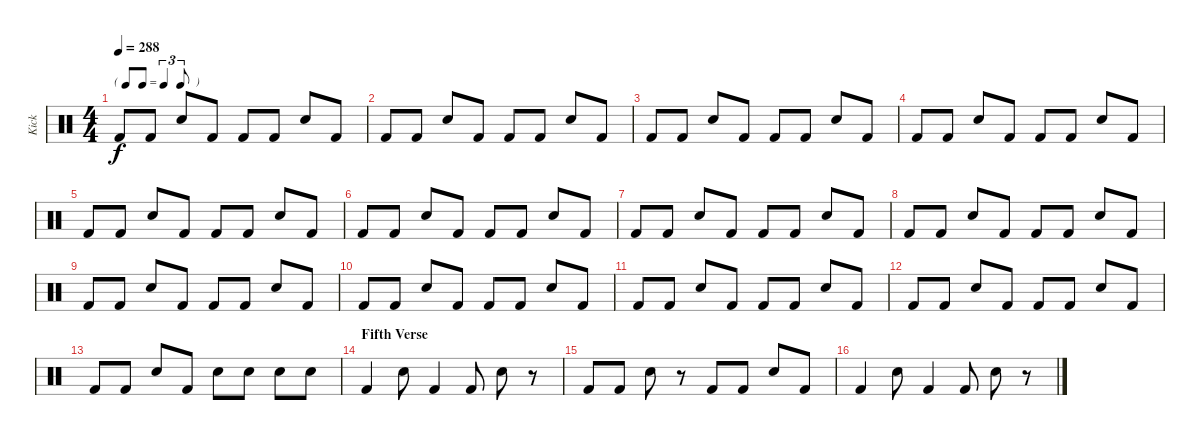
\track ("Kick" "Kick") {instrument percussion}
\staff {score}
\articulation defaults
\ts (4 4)
\tf triplet8th
\tempo 288
\clef neutral
\ks c "Kick (hit) 2".8{dy f} "Kick (hit) 2".8 "Snare (hit) 2".8 "Kick (hit) 2".8 "Kick (hit) 2".8 "Kick (hit) 2".8 "Snare (hit) 2".8 "Kick (hit) 2".8
|
"Kick (hit) 2".8 "Kick (hit) 2".8 "Snare (hit) 2".8 "Kick (hit) 2".8 "Kick (hit) 2".8 "Kick (hit) 2".8 "Snare (hit) 2".8 "Kick (hit) 2".8 |
"Kick (hit) 2".8 "Kick (hit) 2".8 "Snare (hit) 2".8 "Kick (hit) 2".8 "Kick (hit) 2".8 "Kick (hit) 2".8 "Snare (hit) 2".8 "Kick (hit) 2".8 |
"Kick (hit) 2".8 "Kick (hit) 2".8 "Snare (hit) 2".8 "Kick (hit) 2".8 "Kick (hit) 2".8 "Kick (hit) 2".8 "Snare (hit) 2".8 "Kick (hit) 2".8 |
"Kick (hit) 2".8 "Kick (hit) 2".8 "Snare (hit) 2".8 "Kick (hit) 2".8 "Kick (hit) 2".8 "Kick (hit) 2".8 "Snare (hit) 2".8 "Kick (hit) 2".8 |
"Kick (hit) 2".8 "Kick (hit) 2".8 "Snare (hit) 2".8 "Kick (hit) 2".8 "Kick (hit) 2".8 "Kick (hit) 2".8 "Snare (hit) 2".8 "Kick (hit) 2".8 |
"Kick (hit) 2".8 "Kick (hit) 2".8 "Snare (hit) 2".8 "Kick (hit) 2".8 "Kick (hit) 2".8 "Kick (hit) 2".8 "Snare (hit) 2".8 "Kick (hit) 2".8 |
"Kick (hit) 2".8 "Kick (hit) 2".8 "Snare (hit) 2".8 "Kick (hit) 2".8 "Kick (hit) 2".8 "Kick (hit) 2".8 "Snare (hit) 2".8 "Kick (hit) 2".8 |
"Kick (hit) 2".8 "Kick (hit) 2".8 "Snare (hit) 2".8 "Kick (hit) 2".8 "Kick (hit) 2".8 "Kick (hit) 2".8 "Snare (hit) 2".8 "Kick (hit) 2".8 |
"Kick (hit) 2".8 "Kick (hit) 2".8 "Snare (hit) 2".8 "Kick (hit) 2".8 "Kick (hit) 2".8 "Kick (hit) 2".8 "Snare (hit) 2".8 "Kick (hit) 2".8 |
"Kick (hit) 2".8 "Kick (hit) 2".8 "Snare (hit) 2".8 "Kick (hit) 2".8 "Kick (hit) 2".8 "Kick (hit) 2".8 "Snare (hit) 2".8 "Kick (hit) 2".8 |
"Kick (hit) 2".8 "Kick (hit) 2".8 "Snare (hit) 2".8 "Kick (hit) 2".8 "Kick (hit) 2".8 "Kick (hit) 2".8 "Snare (hit) 2".8 "Kick (hit) 2".8 |
"Kick (hit) 2".8 "Kick (hit) 2".8 "Snare (hit) 2".8 "Kick (hit) 2".8 "Snare (hit) 2".8 "Snare (hit) 2".8 "Snare (hit) 2".8 "Snare (hit) 2".8 |
\section ("" "Fifth Verse")
"Kick (hit) 2".4 "Snare (hit) 2".8 "Kick (hit) 2".4 "Kick (hit) 2".8 "Snare (hit) 2".8 r.8 |
"Kick (hit) 2".8 "Kick (hit) 2".8 "Snare (hit) 2".8 r.8 "Kick (hit) 2".8 "Kick (hit) 2".8 "Snare (hit) 2".8 "Kick (hit) 2".8 |
"Kick (hit) 2".4 "Snare (hit) 2".8 "Kick (hit) 2".4 "Kick (hit) 2".8 "Snare (hit) 2".8 r.8
